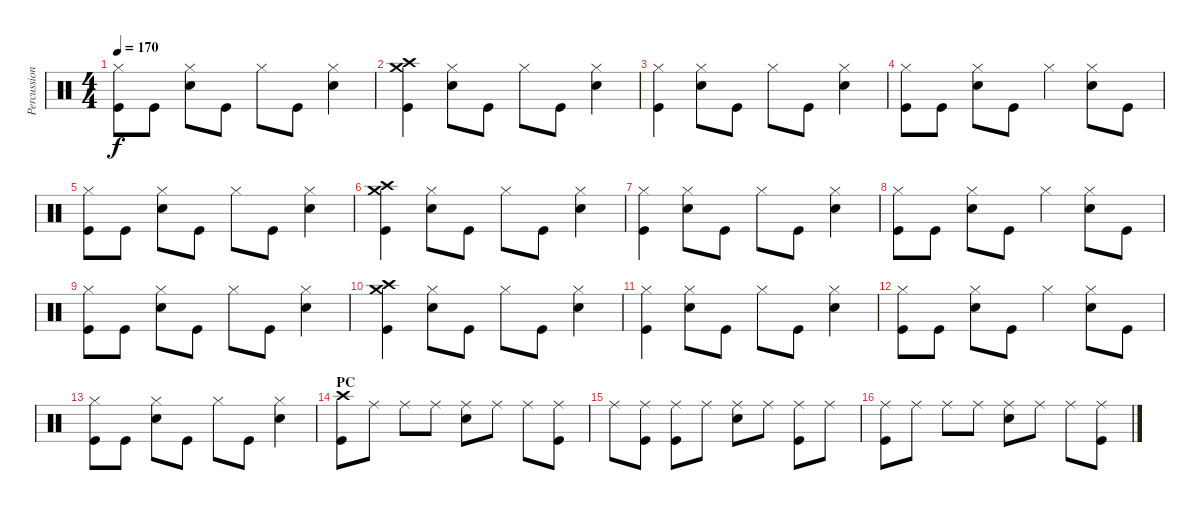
\track ("Percussion" "Percussion") {instrument percussion}
\staff {score}
\articulation defaults
\ts (4 4)
\tempo 170
\clef neutral
\ks c
("Hi-Hat (closed)" "Kick (hit)").8{dy f} "Kick (hit)".8 ("Hi-Hat (closed)" "Electric Snare (hit)").8 "Kick (hit)".8 "Hi-Hat (closed)".8 "Kick (hit)".8 ("Hi-Hat (closed)" "Electric Snare (hit)").4 |
("Crash high (hit)" "Crash medium (hit)" "Kick (hit)").4 ("Hi-Hat (closed)" "Electric Snare (hit)").8 "Kick (hit)".8 "Hi-Hat (closed)".8 "Kick (hit)".8 ("Hi-Hat (closed)" "Electric Snare (hit)").4 |
("Hi-Hat (closed)" "Kick (hit)").4 ("Hi-Hat (closed)" "Electric Snare (hit)").8 "Kick (hit)".8 "Hi-Hat (closed)".8 "Kick (hit)".8 ("Hi-Hat (closed)" "Electric Snare (hit)").4 |
("Hi-Hat (closed)" "Kick (hit)").8 "Kick (hit)".8 ("Hi-Hat (closed)" "Electric Snare (hit)").8 "Kick (hit)".8 "Hi-Hat (closed)".4 ("Hi-Hat (closed)" "Electric Snare (hit)").8 "Kick (hit)".8 |
("Hi-Hat (closed)" "Kick (hit)").8 "Kick (hit)".8 ("Hi-Hat (closed)" "Electric Snare (hit)").8 "Kick (hit)".8 "Hi-Hat (closed)".8 "Kick (hit)".8 ("Hi-Hat (closed)" "Electric Snare (hit)").4 |
("Crash high (hit)" "Crash medium (hit)" "Kick (hit)").4 ("Hi-Hat (closed)" "Electric Snare (hit)").8 "Kick (hit)".8 "Hi-Hat (closed)".8 "Kick (hit)".8 ("Hi-Hat (closed)" "Electric Snare (hit)").4 |
("Hi-Hat (closed)" "Kick (hit)").4 ("Hi-Hat (closed)" "Electric Snare (hit)").8 "Kick (hit)".8 "Hi-Hat (closed)".8 "Kick (hit)".8 ("Hi-Hat (closed)" "Electric Snare (hit)").4 |
("Hi-Hat (closed)" "Kick (hit)").8 "Kick (hit)".8 ("Hi-Hat (closed)" "Electric Snare (hit)").8 "Kick (hit)".8 "Hi-Hat (closed)".4 ("Hi-Hat (closed)" "Electric Snare (hit)").8 "Kick (hit)".8 |
("Hi-Hat (closed)" "Kick (hit)").8 "Kick (hit)".8 ("Hi-Hat (closed)" "Electric Snare (hit)").8 "Kick (hit)".8 "Hi-Hat (closed)".8 "Kick (hit)".8 ("Hi-Hat (closed)" "Electric Snare (hit)").4 |
("Crash high (hit)" "Crash medium (hit)" "Kick (hit)").4 ("Hi-Hat (closed)" "Electric Snare (hit)").8 "Kick (hit)".8 "Hi-Hat (closed)".8 "Kick (hit)".8 ("Hi-Hat (closed)" "Electric Snare (hit)").4 |
("Hi-Hat (closed)" "Kick (hit)").4 ("Hi-Hat (closed)" "Electric Snare (hit)").8 "Kick (hit)".8 "Hi-Hat (closed)".8 "Kick (hit)".8 ("Hi-Hat (closed)" "Electric Snare (hit)").4 |
("Hi-Hat (closed)" "Kick (hit)").8 "Kick (hit)".8 ("Hi-Hat (closed)" "Electric Snare (hit)").8 "Kick (hit)".8 "Hi-Hat (closed)".4 ("Hi-Hat (closed)" "Electric Snare (hit)").8 "Kick (hit)".8 |
("Hi-Hat (closed)" "Kick (hit)").8 "Kick (hit)".8 ("Hi-Hat (closed)" "Electric Snare (hit)").8 "Kick (hit)".8 "Hi-Hat (closed)".8 "Kick (hit)".8 ("Hi-Hat (closed)" "Electric Snare (hit)").4 |
\section ("" "PC")
("Crash high (hit)" "Kick (hit)").8 "Ride (middle)".8 "Ride (middle)".8 "Ride (middle)".8 ("Ride (middle)" "Electric Snare (hit)").8 "Ride (middle)".8 "Ride (middle)".8 ("Ride (middle)" "Kick (hit)").8 |
"Ride (middle)".8 ("Ride (middle)" "Kick (hit)").8 ("Ride (middle)" "Kick (hit)").8 "Ride (middle)".8 ("Ride (middle)" "Electric Snare (hit)").8 "Ride (middle)".8 ("Ride (middle)" "Kick (hit)").8 "Ride (middle)".8 |
("Ride (middle)" "Kick (hit)").8 "Ride (middle)".8 "Ride (middle)".8 "Ride (middle)".8 ("Ride (middle)" "Electric Snare (hit)").8 "Ride (middle)".8 "Ride (middle)".8 ("Ride (middle)" "Kick (hit)").8
